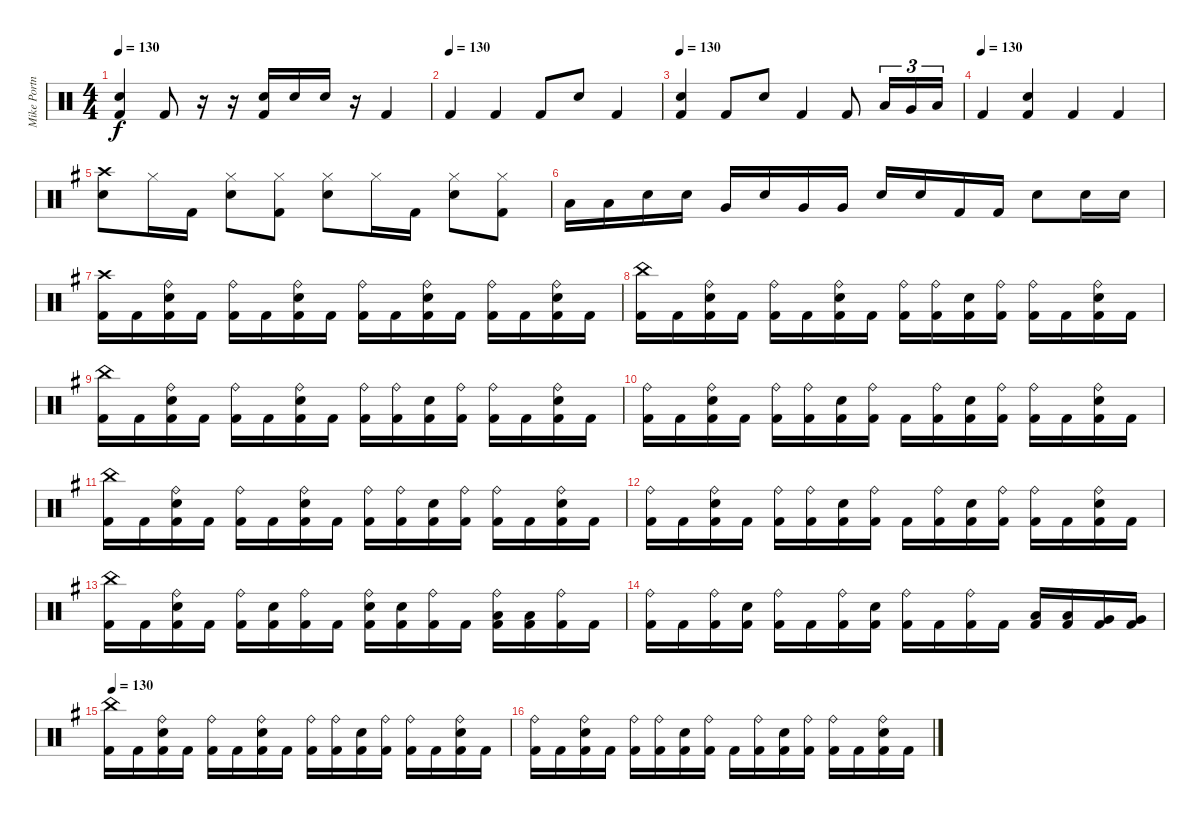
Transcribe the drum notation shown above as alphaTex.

\track ("Mike Portnoy - Drums" "Mike Portn") {instrument percussion}
\staff {score}
\articulation defaults
\ts (4 4)
\tempo 130
\clef neutral
\ks c
("Electric Snare (hit)" "Kick (hit) 2").4{dy f} "Kick (hit) 2".8 r.16 r.16 ("Electric Snare (hit)" "Kick (hit) 2").16 "Electric Snare (hit)".16 "Electric Snare (hit)".16 r.16 "Kick (hit) 2".4 |
\tempo (130)
"Kick (hit) 2".4 "Kick (hit) 2".4 "Kick (hit) 2".8 "Electric Snare (hit)".8 "Kick (hit) 2".4 |
\tempo 130
("Electric Snare (hit)" "Kick (hit) 2").4 "Kick (hit) 2".8 "Electric Snare (hit)".8 "Kick (hit) 2".4 "Kick (hit) 2".8 "Low Tom (hit)".16{tu (3 2)} "Very Low Tom (hit)".16{tu (3 2)} "Low Floor Tom (hit)".16{tu (3 2)} |
\tempo (130)
"Kick (hit) 2".4 ("Electric Snare (hit)" "Kick (hit) 2").4 "Kick (hit) 2".4 "Kick (hit) 2".4 |
\ks g
("Crash high (hit)" "Electric Snare (hit)").8 "Hi-Hat (closed)".16 "Kick (hit) 2".16 ("Hi-Hat (closed)" "Electric Snare (hit)").8 ("Hi-Hat (closed)" "Kick (hit) 2").8 ("Hi-Hat (closed)" "Electric Snare (hit)").8 "Hi-Hat (closed)".16 "Kick (hit) 2".16 ("Hi-Hat (closed)" "Electric Snare (hit)").8 ("Hi-Hat (closed)" "Kick (hit) 2").8 |
"Low Tom (hit)".16 "Low Tom (hit)".16 "Electric Snare (hit)".16 "Electric Snare (hit)".16 "Very Low Tom (hit)".16 "Electric Snare (hit)".16 "Very Low Tom (hit)".16 "Very Low Tom (hit)".16 "Electric Snare (hit)".16 "Electric Snare (hit)".16 "Kick (hit) 2".16 "Kick (hit) 2".16 "Electric Snare (hit)".8 "Electric Snare (hit)".16 "Electric Snare (hit)".16 |
("Crash high (hit)" "Kick (hit) 2").16 "Kick (hit) 2".16 ("Ride (bell)" "Electric Snare (hit)" "Kick (hit) 2").16 "Kick (hit) 2".16 ("Ride (bell)" "Kick (hit) 2").16 "Kick (hit) 2".16 ("Ride (bell)" "Electric Snare (hit)" "Kick (hit) 2").16 "Kick (hit) 2".16 ("Ride (bell)" "Kick (hit) 2").16 "Kick (hit) 2".16 ("Ride (bell)" "Electric Snare (hit)" "Kick (hit) 2").16 "Kick (hit) 2".16 ("Ride (bell)" "Kick (hit) 2").16 "Kick (hit) 2".16 ("Ride (bell)" "Electric Snare (hit)" "Kick (hit) 2").16 "Kick (hit) 2".16 |
("China (hit)" "Kick (hit) 2").16 "Kick (hit) 2".16 ("Ride (bell)" "Electric Snare (hit)" "Kick (hit) 2").16 "Kick (hit) 2".16 ("Ride (bell)" "Kick (hit) 2").16 "Kick (hit) 2".16 ("Ride (bell)" "Electric Snare (hit)" "Kick (hit) 2").16 "Kick (hit) 2".16 ("Ride (bell)" "Kick (hit) 2").16 ("Ride (bell)" "Kick (hit) 2").16 ("Electric Snare (hit)" "Kick (hit) 2").16 ("Ride (bell)" "Kick (hit) 2").16 ("Ride (bell)" "Kick (hit) 2").16 "Kick (hit) 2".16 ("Ride (bell)" "Electric Snare (hit)" "Kick (hit) 2").16 "Kick (hit) 2".16 |
("China (hit)" "Kick (hit) 2").16 "Kick (hit) 2".16 ("Ride (bell)" "Electric Snare (hit)" "Kick (hit) 2").16 "Kick (hit) 2".16 ("Ride (bell)" "Kick (hit) 2").16 "Kick (hit) 2".16 ("Ride (bell)" "Electric Snare (hit)" "Kick (hit) 2").16 "Kick (hit) 2".16 ("Ride (bell)" "Kick (hit) 2").16 ("Ride (bell)" "Kick (hit) 2").16 ("Electric Snare (hit)" "Kick (hit) 2").16 ("Ride (bell)" "Kick (hit) 2").16 ("Ride (bell)" "Kick (hit) 2").16 "Kick (hit) 2".16 ("Ride (bell)" "Electric Snare (hit)" "Kick (hit) 2").16 "Kick (hit) 2".16 |
("Ride (bell)" "Kick (hit) 2").16 "Kick (hit) 2".16 ("Ride (bell)" "Electric Snare (hit)" "Kick (hit) 2").16 "Kick (hit) 2".16 ("Ride (bell)" "Kick (hit) 2").16 ("Ride (bell)" "Kick (hit) 2").16 ("Electric Snare (hit)" "Kick (hit) 2").16 ("Ride (bell)" "Kick (hit) 2").16 "Kick (hit) 2".16 ("Ride (bell)" "Kick (hit) 2").16 ("Electric Snare (hit)" "Kick (hit) 2").16 ("Ride (bell)" "Kick (hit) 2").16 ("Ride (bell)" "Kick (hit) 2").16 "Kick (hit) 2".16 ("Ride (bell)" "Electric Snare (hit)" "Kick (hit) 2").16 "Kick (hit) 2".16 |
("China (hit)" "Kick (hit) 2").16 "Kick (hit) 2".16 ("Ride (bell)" "Electric Snare (hit)" "Kick (hit) 2").16 "Kick (hit) 2".16 ("Ride (bell)" "Kick (hit) 2").16 "Kick (hit) 2".16 ("Ride (bell)" "Electric Snare (hit)" "Kick (hit) 2").16 "Kick (hit) 2".16 ("Ride (bell)" "Kick (hit) 2").16 ("Ride (bell)" "Kick (hit) 2").16 ("Electric Snare (hit)" "Kick (hit) 2").16 ("Ride (bell)" "Kick (hit) 2").16 ("Ride (bell)" "Kick (hit) 2").16 "Kick (hit) 2".16 ("Ride (bell)" "Electric Snare (hit)" "Kick (hit) 2").16 "Kick (hit) 2".16 |
("Ride (bell)" "Kick (hit) 2").16 "Kick (hit) 2".16 ("Ride (bell)" "Electric Snare (hit)" "Kick (hit) 2").16 "Kick (hit) 2".16 ("Ride (bell)" "Kick (hit) 2").16 ("Ride (bell)" "Kick (hit) 2").16 ("Electric Snare (hit)" "Kick (hit) 2").16 ("Ride (bell)" "Kick (hit) 2").16 "Kick (hit) 2".16 ("Ride (bell)" "Kick (hit) 2").16 ("Electric Snare (hit)" "Kick (hit) 2").16 ("Ride (bell)" "Kick (hit) 2").16 ("Ride (bell)" "Kick (hit) 2").16 "Kick (hit) 2".16 ("Ride (bell)" "Electric Snare (hit)" "Kick (hit) 2").16 "Kick (hit) 2".16 |
("China (hit)" "Kick (hit) 2").16 "Kick (hit) 2".16 ("Ride (bell)" "Electric Snare (hit)" "Kick (hit) 2").16 "Kick (hit) 2".16 ("Ride (bell)" "Kick (hit) 2").16 ("Electric Snare (hit)" "Kick (hit) 2").16 ("Ride (bell)" "Kick (hit) 2").16 "Kick (hit) 2".16 ("Ride (bell)" "Electric Snare (hit)" "Kick (hit) 2").16 ("Electric Snare (hit)" "Kick (hit) 2").16 ("Ride (bell)" "Kick (hit) 2").16 "Kick (hit) 2".16 ("Ride (bell)" "Low Tom (hit)" "Kick (hit) 2").16 ("Low Tom (hit)" "Kick (hit) 2").16 ("Ride (bell)" "Kick (hit) 2").16 "Kick (hit) 2".16 |
("Ride (bell)" "Kick (hit) 2").16 "Kick (hit) 2".16 ("Ride (bell)" "Kick (hit) 2").16 ("Electric Snare (hit)" "Kick (hit) 2").16 ("Ride (bell)" "Kick (hit) 2").16 "Kick (hit) 2".16 ("Ride (bell)" "Kick (hit) 2").16 ("Electric Snare (hit)" "Kick (hit) 2").16 ("Ride (bell)" "Kick (hit) 2").16 "Kick (hit) 2".16 ("Ride (bell)" "Kick (hit) 2").16 "Kick (hit) 2".16 ("Low Tom (hit)" "Kick (hit) 2").16 ("Low Tom (hit)" "Kick (hit) 2").16 ("Very Low Tom (hit)" "Kick (hit) 2").16 ("Very Low Tom (hit)" "Kick (hit) 2").16 |
\tempo 130
("China (hit)" "Kick (hit) 2").16 "Kick (hit) 2".16 ("Ride (bell)" "Electric Snare (hit)" "Kick (hit) 2").16 "Kick (hit) 2".16 ("Ride (bell)" "Kick (hit) 2").16 "Kick (hit) 2".16 ("Ride (bell)" "Electric Snare (hit)" "Kick (hit) 2").16 "Kick (hit) 2".16 ("Ride (bell)" "Kick (hit) 2").16 ("Ride (bell)" "Kick (hit) 2").16 ("Electric Snare (hit)" "Kick (hit) 2").16 ("Ride (bell)" "Kick (hit) 2").16 ("Ride (bell)" "Kick (hit) 2").16 "Kick (hit) 2".16 ("Ride (bell)" "Electric Snare (hit)" "Kick (hit) 2").16 "Kick (hit) 2".16 |
("Ride (bell)" "Kick (hit) 2").16 "Kick (hit) 2".16 ("Ride (bell)" "Electric Snare (hit)" "Kick (hit) 2").16 "Kick (hit) 2".16 ("Ride (bell)" "Kick (hit) 2").16 ("Ride (bell)" "Kick (hit) 2").16 ("Electric Snare (hit)" "Kick (hit) 2").16 ("Ride (bell)" "Kick (hit) 2").16 "Kick (hit) 2".16 ("Ride (bell)" "Kick (hit) 2").16 ("Electric Snare (hit)" "Kick (hit) 2").16 ("Ride (bell)" "Kick (hit) 2").16 ("Ride (bell)" "Kick (hit) 2").16 "Kick (hit) 2".16 ("Ride (bell)" "Electric Snare (hit)" "Kick (hit) 2").16 "Kick (hit) 2".16
